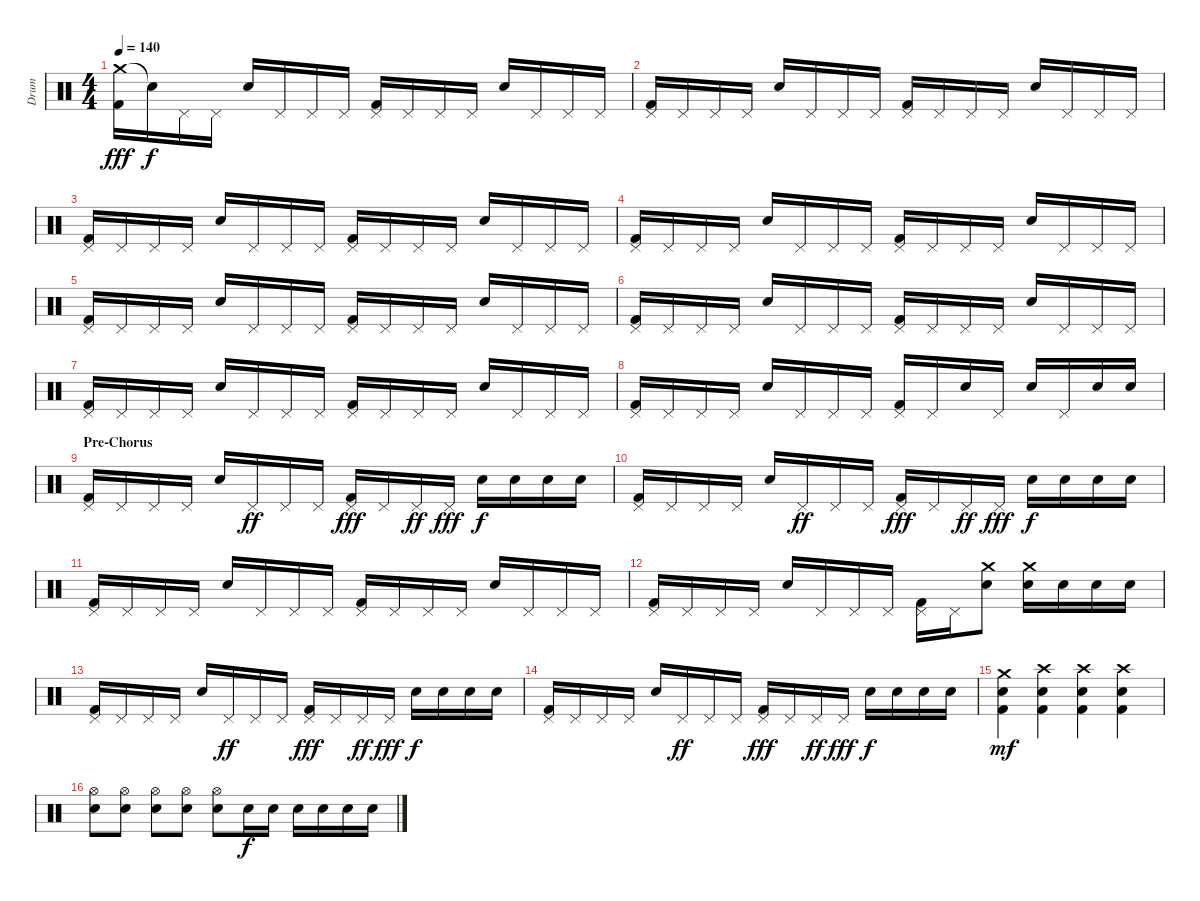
\track ("Drum" "Drum") {instrument percussion}
\staff {score}
\articulation defaults
\ts (4 4)
\tempo 140
\clef neutral
\ks c
("Crash medium (hit)" "Kick (hit) 2").16{dy fff} "Snare (hit)"{t}.16{dy f} "Pedal Hi-Hat (hit)".16 "Pedal Hi-Hat (hit)".16 "Snare (hit) 2".16 "Pedal Hi-Hat (hit)".16 "Pedal Hi-Hat (hit)".16 "Pedal Hi-Hat (hit)".16 ("Pedal Hi-Hat (hit)" "Kick (hit) 2").16 "Pedal Hi-Hat (hit)".16 "Pedal Hi-Hat (hit)".16 "Pedal Hi-Hat (hit)".16 "Snare (hit) 2".16 "Pedal Hi-Hat (hit)".16 "Pedal Hi-Hat (hit)".16 "Pedal Hi-Hat (hit)".16 |
("Pedal Hi-Hat (hit)" "Kick (hit) 2").16 "Pedal Hi-Hat (hit)".16 "Pedal Hi-Hat (hit)".16 "Pedal Hi-Hat (hit)".16 "Snare (hit) 2".16 "Pedal Hi-Hat (hit)".16 "Pedal Hi-Hat (hit)".16 "Pedal Hi-Hat (hit)".16 ("Pedal Hi-Hat (hit)" "Kick (hit) 2").16 "Pedal Hi-Hat (hit)".16 "Pedal Hi-Hat (hit)".16 "Pedal Hi-Hat (hit)".16 "Snare (hit) 2".16 "Pedal Hi-Hat (hit)".16 "Pedal Hi-Hat (hit)".16 "Pedal Hi-Hat (hit)".16 |
("Pedal Hi-Hat (hit)" "Kick (hit) 2").16 "Pedal Hi-Hat (hit)".16 "Pedal Hi-Hat (hit)".16 "Pedal Hi-Hat (hit)".16 "Snare (hit) 2".16 "Pedal Hi-Hat (hit)".16 "Pedal Hi-Hat (hit)".16 "Pedal Hi-Hat (hit)".16 ("Pedal Hi-Hat (hit)" "Kick (hit) 2").16 "Pedal Hi-Hat (hit)".16 "Pedal Hi-Hat (hit)".16 "Pedal Hi-Hat (hit)".16 "Snare (hit) 2".16 "Pedal Hi-Hat (hit)".16 "Pedal Hi-Hat (hit)".16 "Pedal Hi-Hat (hit)".16 |
("Pedal Hi-Hat (hit)" "Kick (hit) 2").16 "Pedal Hi-Hat (hit)".16 "Pedal Hi-Hat (hit)".16 "Pedal Hi-Hat (hit)".16 "Snare (hit) 2".16 "Pedal Hi-Hat (hit)".16 "Pedal Hi-Hat (hit)".16 "Pedal Hi-Hat (hit)".16 ("Pedal Hi-Hat (hit)" "Kick (hit) 2").16 "Pedal Hi-Hat (hit)".16 "Pedal Hi-Hat (hit)".16 "Pedal Hi-Hat (hit)".16 "Snare (hit) 2".16 "Pedal Hi-Hat (hit)".16 "Pedal Hi-Hat (hit)".16 "Pedal Hi-Hat (hit)".16 |
("Pedal Hi-Hat (hit)" "Kick (hit) 2").16 "Pedal Hi-Hat (hit)".16 "Pedal Hi-Hat (hit)".16 "Pedal Hi-Hat (hit)".16 "Snare (hit) 2".16 "Pedal Hi-Hat (hit)".16 "Pedal Hi-Hat (hit)".16 "Pedal Hi-Hat (hit)".16 ("Pedal Hi-Hat (hit)" "Kick (hit) 2").16 "Pedal Hi-Hat (hit)".16 "Pedal Hi-Hat (hit)".16 "Pedal Hi-Hat (hit)".16 "Snare (hit) 2".16 "Pedal Hi-Hat (hit)".16 "Pedal Hi-Hat (hit)".16 "Pedal Hi-Hat (hit)".16 |
("Pedal Hi-Hat (hit)" "Kick (hit) 2").16 "Pedal Hi-Hat (hit)".16 "Pedal Hi-Hat (hit)".16 "Pedal Hi-Hat (hit)".16 "Snare (hit) 2".16 "Pedal Hi-Hat (hit)".16 "Pedal Hi-Hat (hit)".16 "Pedal Hi-Hat (hit)".16 ("Pedal Hi-Hat (hit)" "Kick (hit) 2").16 "Pedal Hi-Hat (hit)".16 "Pedal Hi-Hat (hit)".16 "Pedal Hi-Hat (hit)".16 "Snare (hit) 2".16 "Pedal Hi-Hat (hit)".16 "Pedal Hi-Hat (hit)".16 "Pedal Hi-Hat (hit)".16 |
("Pedal Hi-Hat (hit)" "Kick (hit) 2").16 "Pedal Hi-Hat (hit)".16 "Pedal Hi-Hat (hit)".16 "Pedal Hi-Hat (hit)".16 "Snare (hit) 2".16 "Pedal Hi-Hat (hit)".16 "Pedal Hi-Hat (hit)".16 "Pedal Hi-Hat (hit)".16 ("Pedal Hi-Hat (hit)" "Kick (hit) 2").16 "Pedal Hi-Hat (hit)".16 "Pedal Hi-Hat (hit)".16 "Pedal Hi-Hat (hit)".16 "Snare (hit) 2".16 "Pedal Hi-Hat (hit)".16 "Pedal Hi-Hat (hit)".16 "Pedal Hi-Hat (hit)".16 |
("Pedal Hi-Hat (hit)" "Kick (hit) 2").16 "Pedal Hi-Hat (hit)".16 "Pedal Hi-Hat (hit)".16 "Pedal Hi-Hat (hit)".16 "Snare (hit) 2".16 "Pedal Hi-Hat (hit)".16 "Pedal Hi-Hat (hit)".16 "Pedal Hi-Hat (hit)".16 ("Pedal Hi-Hat (hit)" "Kick (hit) 2").16 "Pedal Hi-Hat (hit)".16 "Snare (hit) 2".16 "Pedal Hi-Hat (hit)".16 "Snare (hit) 2".16 "Pedal Hi-Hat (hit)".16 "Snare (hit) 2".16 "Snare (hit) 2".16 |
\section ("" "Pre-Chorus")
("Pedal Hi-Hat (hit)" "Kick (hit) 2").16 "Pedal Hi-Hat (hit)".16 "Pedal Hi-Hat (hit)".16 "Pedal Hi-Hat (hit)".16 "Snare (hit) 2".16 "Pedal Hi-Hat (hit)".16{dy ff} "Pedal Hi-Hat (hit)".16 "Pedal Hi-Hat (hit)".16 ("Pedal Hi-Hat (hit)" "Kick (hit) 2").16{dy fff} "Pedal Hi-Hat (hit)".16 "Pedal Hi-Hat (hit)".16{dy ff} "Pedal Hi-Hat (hit)".16{dy fff} "Snare (hit) 2".16{dy f} "Snare (hit) 2".16 "Snare (hit) 2".16 "Snare (hit) 2".16 |
("Pedal Hi-Hat (hit)" "Kick (hit) 2").16 "Pedal Hi-Hat (hit)".16 "Pedal Hi-Hat (hit)".16 "Pedal Hi-Hat (hit)".16 "Snare (hit) 2".16 "Pedal Hi-Hat (hit)".16{dy ff} "Pedal Hi-Hat (hit)".16 "Pedal Hi-Hat (hit)".16 ("Pedal Hi-Hat (hit)" "Kick (hit) 2").16{dy fff} "Pedal Hi-Hat (hit)".16 "Pedal Hi-Hat (hit)".16{dy ff} "Pedal Hi-Hat (hit)".16{dy fff} "Snare (hit) 2".16{dy f} "Snare (hit) 2".16 "Snare (hit) 2".16 "Snare (hit) 2".16 |
("Pedal Hi-Hat (hit)" "Kick (hit) 2").16 "Pedal Hi-Hat (hit)".16 "Pedal Hi-Hat (hit)".16 "Pedal Hi-Hat (hit)".16 "Snare (hit) 2".16 "Pedal Hi-Hat (hit)".16 "Pedal Hi-Hat (hit)".16 "Pedal Hi-Hat (hit)".16 ("Pedal Hi-Hat (hit)" "Kick (hit) 2").16 "Pedal Hi-Hat (hit)".16 "Pedal Hi-Hat (hit)".16 "Pedal Hi-Hat (hit)".16 "Snare (hit) 2".16 "Pedal Hi-Hat (hit)".16 "Pedal Hi-Hat (hit)".16 "Pedal Hi-Hat (hit)".16 |
("Pedal Hi-Hat (hit)" "Kick (hit) 2").16 "Pedal Hi-Hat (hit)".16 "Pedal Hi-Hat (hit)".16 "Pedal Hi-Hat (hit)".16 "Snare (hit) 2".16 "Pedal Hi-Hat (hit)".16 "Pedal Hi-Hat (hit)".16 "Pedal Hi-Hat (hit)".16 ("Pedal Hi-Hat (hit)" "Kick (hit) 2").16 "Pedal Hi-Hat (hit)".16 ("Crash medium (hit)" "Snare (hit) 2").8 ("Crash medium (hit)" "Snare (hit) 2").16 "Snare (hit) 2".16 "Snare (hit) 2".16 "Snare (hit) 2".16 |
("Pedal Hi-Hat (hit)" "Kick (hit) 2").16 "Pedal Hi-Hat (hit)".16 "Pedal Hi-Hat (hit)".16 "Pedal Hi-Hat (hit)".16 "Snare (hit) 2".16 "Pedal Hi-Hat (hit)".16{dy ff} "Pedal Hi-Hat (hit)".16 "Pedal Hi-Hat (hit)".16 ("Pedal Hi-Hat (hit)" "Kick (hit) 2").16{dy fff} "Pedal Hi-Hat (hit)".16 "Pedal Hi-Hat (hit)".16{dy ff} "Pedal Hi-Hat (hit)".16{dy fff} "Snare (hit) 2".16{dy f} "Snare (hit) 2".16 "Snare (hit) 2".16 "Snare (hit) 2".16 |
("Pedal Hi-Hat (hit)" "Kick (hit) 2").16 "Pedal Hi-Hat (hit)".16 "Pedal Hi-Hat (hit)".16 "Pedal Hi-Hat (hit)".16 "Snare (hit) 2".16 "Pedal Hi-Hat (hit)".16{dy ff} "Pedal Hi-Hat (hit)".16 "Pedal Hi-Hat (hit)".16 ("Pedal Hi-Hat (hit)" "Kick (hit) 2").16{dy fff} "Pedal Hi-Hat (hit)".16 "Pedal Hi-Hat (hit)".16{dy ff} "Pedal Hi-Hat (hit)".16{dy fff} "Snare (hit) 2".16{dy f} "Snare (hit) 2".16 "Snare (hit) 2".16 "Snare (hit) 2".16 |
("Crash medium (hit)" "Snare (hit) 2" "Kick (hit) 2").4{dy mf} ("Crash high (hit)" "Snare (hit) 2" "Kick (hit) 2").4 ("Crash high (hit)" "Snare (hit) 2" "Kick (hit) 2").4 ("Crash high (hit)" "Snare (hit) 2" "Kick (hit) 2").4 |
("Hi-Hat (open)" "Snare (hit) 2").8 ("Hi-Hat (open)" "Snare (hit) 2").8 ("Hi-Hat (open)" "Snare (hit) 2").8 ("Hi-Hat (open)" "Snare (hit) 2").8 ("Hi-Hat (open)" "Snare (hit) 2").8 "Snare (hit) 2".16{dy f} "Snare (hit) 2".16 "Snare (hit) 2".16 "Snare (hit) 2".16 "Snare (hit) 2".16 "Snare (hit) 2".16
